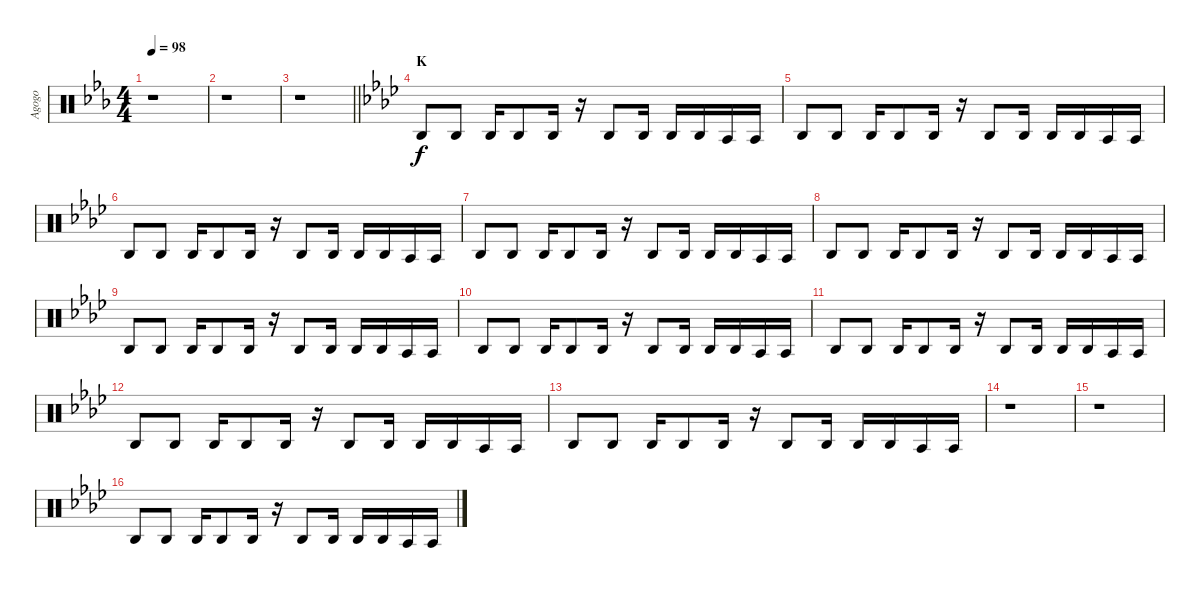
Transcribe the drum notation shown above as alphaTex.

\track ("Agogo" "Agogo") {instrument percussion}
\staff {score}
\articulation defaults
\ts (4 4)
\tempo 98
\clef neutral
\ks eb
r.1{dy f} |
r.1 |
\barLineRight lightlight
r.1 |
\section ("" "K")
\ks ab "Agogo high (hit)".8 "Agogo high (hit)".8 "Agogo high (hit)".16 "Agogo high (hit)".8 "Agogo high (hit)".16
r.16 "Agogo high (hit)".8 "Agogo high (hit)".16 "Agogo high (hit)".16 "Agogo high (hit)".16 "Agogo tow (hit)".16 "Agogo tow (hit)".16 |
"Agogo high (hit)".8 "Agogo high (hit)".8 "Agogo high (hit)".16 "Agogo high (hit)".8 "Agogo high (hit)".16 r.16 "Agogo high (hit)".8 "Agogo high (hit)".16 "Agogo high (hit)".16 "Agogo high (hit)".16 "Agogo tow (hit)".16 "Agogo tow (hit)".16 |
"Agogo high (hit)".8 "Agogo high (hit)".8 "Agogo high (hit)".16 "Agogo high (hit)".8 "Agogo high (hit)".16 r.16 "Agogo high (hit)".8 "Agogo high (hit)".16 "Agogo high (hit)".16 "Agogo high (hit)".16 "Agogo tow (hit)".16 "Agogo tow (hit)".16 |
"Agogo high (hit)".8 "Agogo high (hit)".8 "Agogo high (hit)".16 "Agogo high (hit)".8 "Agogo high (hit)".16 r.16 "Agogo high (hit)".8 "Agogo high (hit)".16 "Agogo high (hit)".16 "Agogo high (hit)".16 "Agogo tow (hit)".16 "Agogo tow (hit)".16 |
"Agogo high (hit)".8 "Agogo high (hit)".8 "Agogo high (hit)".16 "Agogo high (hit)".8 "Agogo high (hit)".16 r.16 "Agogo high (hit)".8 "Agogo high (hit)".16 "Agogo high (hit)".16 "Agogo high (hit)".16 "Agogo tow (hit)".16 "Agogo tow (hit)".16 |
"Agogo high (hit)".8 "Agogo high (hit)".8 "Agogo high (hit)".16 "Agogo high (hit)".8 "Agogo high (hit)".16 r.16 "Agogo high (hit)".8 "Agogo high (hit)".16 "Agogo high (hit)".16 "Agogo high (hit)".16 "Agogo tow (hit)".16 "Agogo tow (hit)".16 |
"Agogo high (hit)".8 "Agogo high (hit)".8 "Agogo high (hit)".16 "Agogo high (hit)".8 "Agogo high (hit)".16 r.16 "Agogo high (hit)".8 "Agogo high (hit)".16 "Agogo high (hit)".16 "Agogo high (hit)".16 "Agogo tow (hit)".16 "Agogo tow (hit)".16 |
"Agogo high (hit)".8 "Agogo high (hit)".8 "Agogo high (hit)".16 "Agogo high (hit)".8 "Agogo high (hit)".16 r.16 "Agogo high (hit)".8 "Agogo high (hit)".16 "Agogo high (hit)".16 "Agogo high (hit)".16 "Agogo tow (hit)".16 "Agogo tow (hit)".16 |
"Agogo high (hit)".8 "Agogo high (hit)".8 "Agogo high (hit)".16 "Agogo high (hit)".8 "Agogo high (hit)".16 r.16 "Agogo high (hit)".8 "Agogo high (hit)".16 "Agogo high (hit)".16 "Agogo high (hit)".16 "Agogo tow (hit)".16 "Agogo tow (hit)".16 |
"Agogo high (hit)".8 "Agogo high (hit)".8 "Agogo high (hit)".16 "Agogo high (hit)".8 "Agogo high (hit)".16 r.16 "Agogo high (hit)".8 "Agogo high (hit)".16 "Agogo high (hit)".16 "Agogo high (hit)".16 "Agogo tow (hit)".16 "Agogo tow (hit)".16 |
r.1 |
r.1 |
"Agogo high (hit)".8 "Agogo high (hit)".8 "Agogo high (hit)".16 "Agogo high (hit)".8 "Agogo high (hit)".16 r.16 "Agogo high (hit)".8 "Agogo high (hit)".16 "Agogo high (hit)".16 "Agogo high (hit)".16 "Agogo tow (hit)".16 "Agogo tow (hit)".16
